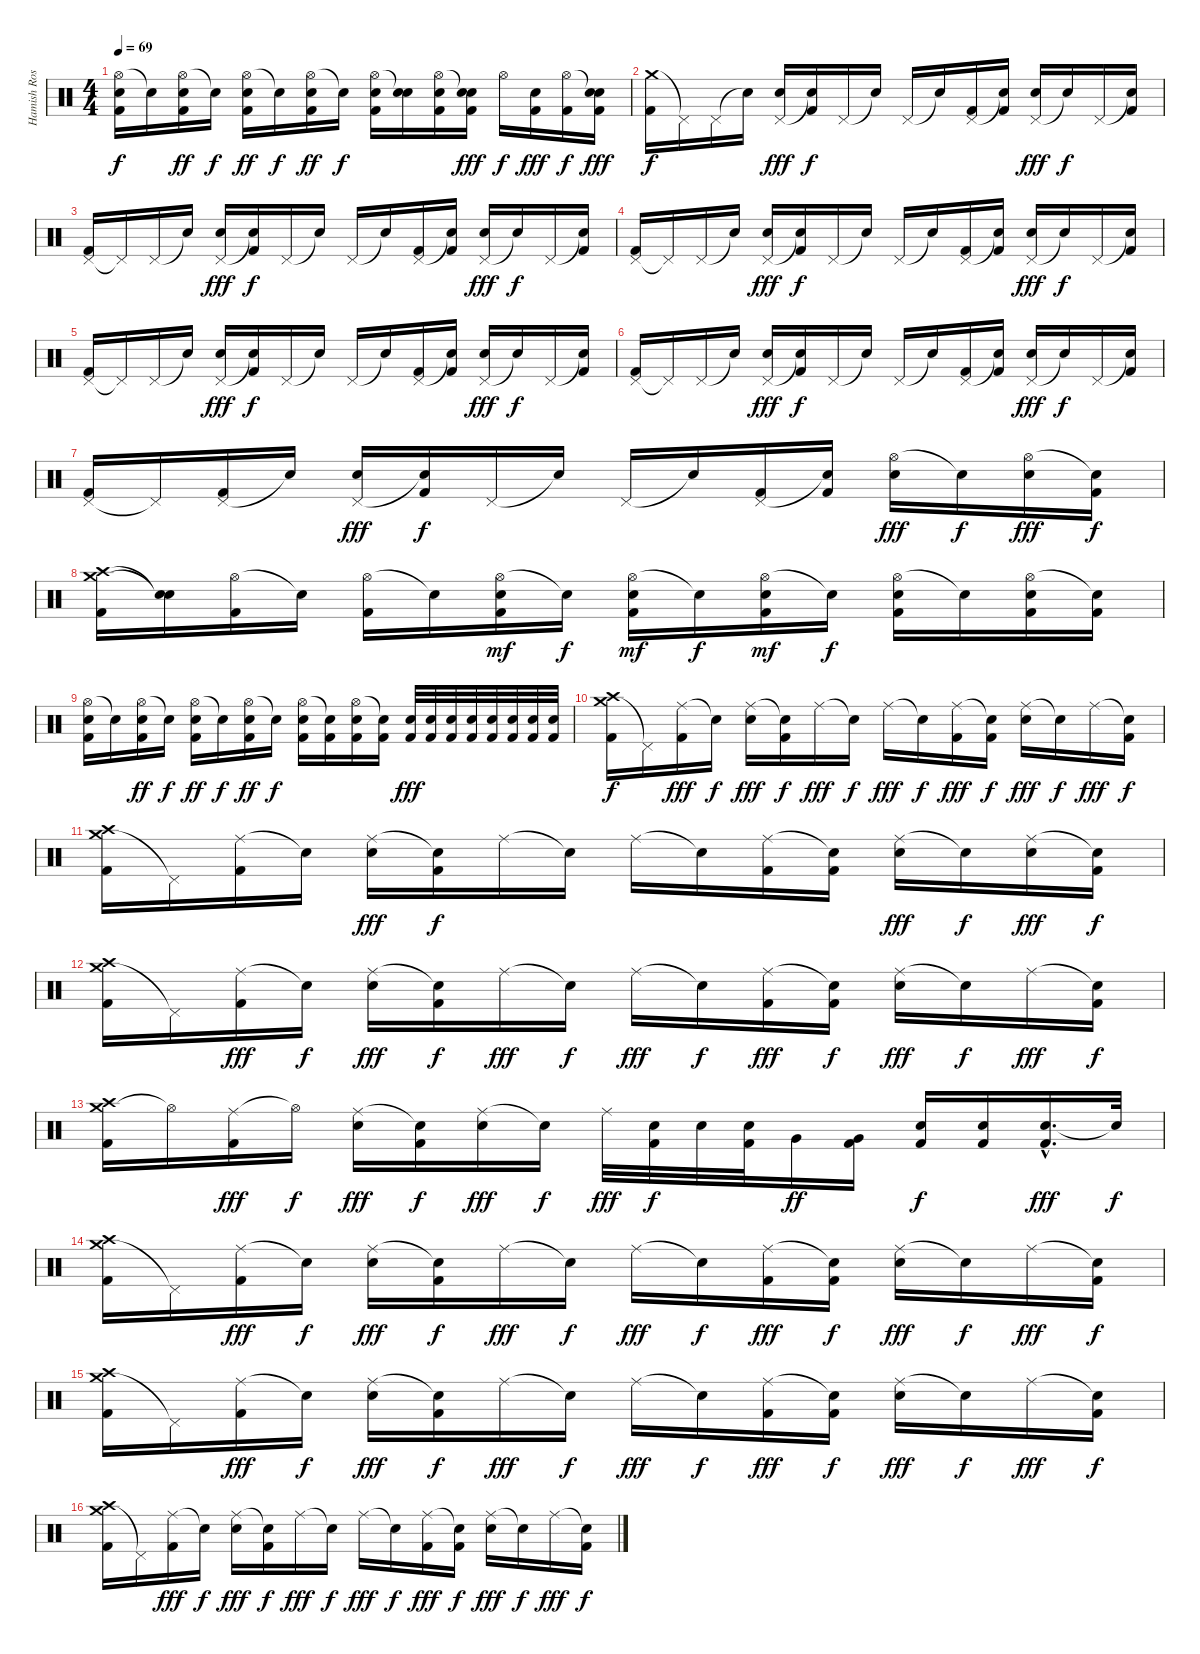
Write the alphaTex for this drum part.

\track ("Hamish Rosser" "Hamish Ros") {instrument percussion}
\staff {score}
\articulation defaults
\ts (4 4)
\tempo 69
\clef neutral
\ks c
("Hi-Hat (open)" "Snare (hit) 2" "Kick (hit) 2").16{dy f} "Snare (hit)"{t}.16 ("Hi-Hat (open)" "Snare (hit) 2" "Kick (hit) 2").16{dy ff} "Snare (hit)"{t}.16{dy f} ("Hi-Hat (open)" "Snare (hit) 2" "Kick (hit) 2").16{dy ff} "Snare (hit)"{t}.16{dy f} ("Hi-Hat (open)" "Snare (hit) 2" "Kick (hit) 2").16{dy ff} "Snare (hit)"{t}.16{dy f} ("Hi-Hat (open)" "Snare (hit) 2" "Kick (hit) 2").16 ("Snare (hit)"{t} "Snare (hit) 2").16 ("Hi-Hat (open)" "Snare (hit) 2" "Kick (hit) 2").16 ("Snare (hit)"{t} "Electric Snare (hit)" "Kick (hit) 2").16{dy fff} "Hi-Hat (open)".16{dy f} ("Electric Snare (hit)" "Kick (hit) 2").16{dy fff} ("Hi-Hat (open)" "Kick (hit) 2").16{dy f} ("Snare (hit)"{t} "Electric Snare (hit)" "Kick (hit) 2").16{dy fff} |
("Crash medium (hit)" "Kick (hit) 2").16{dy f} "Pedal Hi-Hat (hit)"{t}.16 "Pedal Hi-Hat (hit)".16 "Snare (hit)"{t}.16 ("Pedal Hi-Hat (hit)" "Electric Snare (hit)").16{dy fff} ("Snare (hit)"{t} "Kick (hit) 2").16{dy f} "Pedal Hi-Hat (hit)".16 "Snare (hit)"{t}.16 "Pedal Hi-Hat (hit)".16 "Snare (hit)"{t}.16 ("Pedal Hi-Hat (hit)" "Kick (hit) 2").16 ("Snare (hit)"{t} "Kick (hit) 2").16 ("Pedal Hi-Hat (hit)" "Electric Snare (hit)").16{dy fff} "Snare (hit)"{t}.16{dy f} "Pedal Hi-Hat (hit)".16 ("Snare (hit)"{t} "Kick (hit) 2").16 |
("Pedal Hi-Hat (hit)" "Kick (hit) 2").16 "Pedal Hi-Hat (hit)"{t}.16 "Pedal Hi-Hat (hit)".16 "Snare (hit)"{t}.16 ("Pedal Hi-Hat (hit)" "Electric Snare (hit)").16{dy fff} ("Snare (hit)"{t} "Kick (hit) 2").16{dy f} "Pedal Hi-Hat (hit)".16 "Snare (hit)"{t}.16 "Pedal Hi-Hat (hit)".16 "Snare (hit)"{t}.16 ("Pedal Hi-Hat (hit)" "Kick (hit) 2").16 ("Snare (hit)"{t} "Kick (hit) 2").16 ("Pedal Hi-Hat (hit)" "Electric Snare (hit)").16{dy fff} "Snare (hit)"{t}.16{dy f} "Pedal Hi-Hat (hit)".16 ("Snare (hit)"{t} "Kick (hit) 2").16 |
("Pedal Hi-Hat (hit)" "Kick (hit) 2").16 "Pedal Hi-Hat (hit)"{t}.16 "Pedal Hi-Hat (hit)".16 "Snare (hit)"{t}.16 ("Pedal Hi-Hat (hit)" "Electric Snare (hit)").16{dy fff} ("Snare (hit)"{t} "Kick (hit) 2").16{dy f} "Pedal Hi-Hat (hit)".16 "Snare (hit)"{t}.16 "Pedal Hi-Hat (hit)".16 "Snare (hit)"{t}.16 ("Pedal Hi-Hat (hit)" "Kick (hit) 2").16 ("Snare (hit)"{t} "Kick (hit) 2").16 ("Pedal Hi-Hat (hit)" "Electric Snare (hit)").16{dy fff} "Snare (hit)"{t}.16{dy f} "Pedal Hi-Hat (hit)".16 ("Snare (hit)"{t} "Kick (hit) 2").16 |
("Pedal Hi-Hat (hit)" "Kick (hit) 2").16 "Pedal Hi-Hat (hit)"{t}.16 "Pedal Hi-Hat (hit)".16 "Snare (hit)"{t}.16 ("Pedal Hi-Hat (hit)" "Electric Snare (hit)").16{dy fff} ("Snare (hit)"{t} "Kick (hit) 2").16{dy f} "Pedal Hi-Hat (hit)".16 "Snare (hit)"{t}.16 "Pedal Hi-Hat (hit)".16 "Snare (hit)"{t}.16 ("Pedal Hi-Hat (hit)" "Kick (hit) 2").16 ("Snare (hit)"{t} "Kick (hit) 2").16 ("Pedal Hi-Hat (hit)" "Electric Snare (hit)").16{dy fff} "Snare (hit)"{t}.16{dy f} "Pedal Hi-Hat (hit)".16 ("Snare (hit)"{t} "Kick (hit) 2").16 |
("Pedal Hi-Hat (hit)" "Kick (hit) 2").16 "Pedal Hi-Hat (hit)"{t}.16 "Pedal Hi-Hat (hit)".16 "Snare (hit)"{t}.16 ("Pedal Hi-Hat (hit)" "Electric Snare (hit)").16{dy fff} ("Snare (hit)"{t} "Kick (hit) 2").16{dy f} "Pedal Hi-Hat (hit)".16 "Snare (hit)"{t}.16 "Pedal Hi-Hat (hit)".16 "Snare (hit)"{t}.16 ("Pedal Hi-Hat (hit)" "Kick (hit) 2").16 ("Snare (hit)"{t} "Kick (hit) 2").16 ("Pedal Hi-Hat (hit)" "Electric Snare (hit)").16{dy fff} "Snare (hit)"{t}.16{dy f} "Pedal Hi-Hat (hit)".16 ("Snare (hit)"{t} "Kick (hit) 2").16 |
("Pedal Hi-Hat (hit)" "Kick (hit) 2").16 "Pedal Hi-Hat (hit)"{t}.16 ("Pedal Hi-Hat (hit)" "Kick (hit) 2").16 "Snare (hit)"{t}.16 ("Pedal Hi-Hat (hit)" "Electric Snare (hit)").16{dy fff} ("Snare (hit)"{t} "Kick (hit) 2").16{dy f} "Pedal Hi-Hat (hit)".16 "Snare (hit)"{t}.16 "Pedal Hi-Hat (hit)".16 "Snare (hit)"{t}.16 ("Pedal Hi-Hat (hit)" "Kick (hit) 2").16 ("Snare (hit)"{t} "Kick (hit) 2").16 ("Hi-Hat (open)" "Electric Snare (hit)").16{dy fff} "Snare (hit)"{t}.16{dy f} ("Hi-Hat (open)" "Electric Snare (hit)").16{dy fff} ("Snare (hit)"{t} "Kick (hit) 2").16{dy f} |
("Crash medium (hit)" "Crash high (hit)" "Kick (hit) 2").16 ("Snare (hit)"{t} "Snare (hit)"{t}).16 ("Hi-Hat (open)" "Kick (hit) 2").16 "Snare (hit)"{t}.16 ("Hi-Hat (open)" "Kick (hit) 2").16 "Snare (hit)"{t}.16 ("Hi-Hat (open)" "Snare (hit) 2" "Kick (hit) 2").16{dy mf} "Snare (hit)"{t}.16{dy f} ("Hi-Hat (open)" "Snare (hit) 2" "Kick (hit) 2").16{dy mf} "Snare (hit)"{t}.16{dy f} ("Hi-Hat (open)" "Snare (hit) 2" "Kick (hit) 2").16{dy mf} "Snare (hit)"{t}.16{dy f} ("Hi-Hat (open)" "Snare (hit) 2" "Kick (hit) 2").16 "Snare (hit)"{t}.16 ("Hi-Hat (open)" "Snare (hit) 2" "Kick (hit) 2").16 ("Snare (hit)"{t} "Kick (hit) 2").16 |
("Hi-Hat (open)" "Snare (hit) 2" "Kick (hit) 2").16 "Snare (hit)"{t}.16 ("Hi-Hat (open)" "Snare (hit) 2" "Kick (hit) 2").16{dy ff} "Snare (hit)"{t}.16{dy f} ("Hi-Hat (open)" "Snare (hit) 2" "Kick (hit) 2").16{dy ff} "Snare (hit)"{t}.16{dy f} ("Hi-Hat (open)" "Snare (hit) 2" "Kick (hit) 2").16{dy ff} "Snare (hit)"{t}.16{dy f} ("Hi-Hat (open)" "Snare (hit) 2" "Kick (hit) 2").16 ("Snare (hit)"{t} "Kick (hit) 2").16 ("Hi-Hat (open)" "Snare (hit) 2" "Kick (hit) 2").16 ("Snare (hit)"{t} "Kick (hit) 2").16 ("Electric Snare (hit)" "Kick (hit) 2").32{dy fff} ("Electric Snare (hit)" "Kick (hit) 2").32 ("Electric Snare (hit)" "Kick (hit) 2").32 ("Electric Snare (hit)" "Kick (hit) 2").32 ("Electric Snare (hit)" "Kick (hit) 2").32 ("Electric Snare (hit)" "Kick (hit) 2").32 ("Electric Snare (hit)" "Kick (hit) 2").32 ("Electric Snare (hit)" "Kick (hit) 2").32 |
("Crash medium (hit)" "Crash high (hit)" "Kick (hit) 2").16{dy f} "Pedal Hi-Hat (hit)"{t}.16 ("Ride (middle)" "Kick (hit) 2").16{dy fff} "Snare (hit)"{t}.16{dy f} ("Ride (middle)" "Electric Snare (hit)").16{dy fff} ("Snare (hit)"{t} "Kick (hit) 2").16{dy f} "Ride (middle)".16{dy fff} "Snare (hit)"{t}.16{dy f} "Ride (middle)".16{dy fff} "Snare (hit)"{t}.16{dy f} ("Ride (middle)" "Kick (hit) 2").16{dy fff} ("Snare (hit)"{t} "Kick (hit) 2").16{dy f} ("Ride (middle)" "Electric Snare (hit)").16{dy fff} "Snare (hit)"{t}.16{dy f} "Ride (middle)".16{dy fff} ("Snare (hit)"{t} "Kick (hit) 2").16{dy f} |
("Crash medium (hit)" "Crash high (hit)" "Kick (hit) 2").16 "Pedal Hi-Hat (hit)"{t}.16 ("Ride (middle)" "Kick (hit) 2").16 "Snare (hit)"{t}.16 ("Ride (middle)" "Electric Snare (hit)").16{dy fff} ("Snare (hit)"{t} "Kick (hit) 2").16{dy f} "Ride (middle)".16 "Snare (hit)"{t}.16 "Ride (middle)".16 "Snare (hit)"{t}.16 ("Ride (middle)" "Kick (hit) 2").16 ("Snare (hit)"{t} "Kick (hit) 2").16 ("Ride (middle)" "Electric Snare (hit)").16{dy fff} "Snare (hit)"{t}.16{dy f} ("Ride (middle)" "Electric Snare (hit)").16{dy fff} ("Snare (hit)"{t} "Kick (hit) 2").16{dy f} |
("Crash medium (hit)" "Crash high (hit)" "Kick (hit) 2").16 "Pedal Hi-Hat (hit)"{t}.16 ("Ride (middle)" "Kick (hit) 2").16{dy fff} "Snare (hit)"{t}.16{dy f} ("Ride (middle)" "Electric Snare (hit)").16{dy fff} ("Snare (hit)"{t} "Kick (hit) 2").16{dy f} "Ride (middle)".16{dy fff} "Snare (hit)"{t}.16{dy f} "Ride (middle)".16{dy fff} "Snare (hit)"{t}.16{dy f} ("Ride (middle)" "Kick (hit) 2").16{dy fff} ("Snare (hit)"{t} "Kick (hit) 2").16{dy f} ("Ride (middle)" "Electric Snare (hit)").16{dy fff} "Snare (hit)"{t}.16{dy f} "Ride (middle)".16{dy fff} ("Snare (hit)"{t} "Kick (hit) 2").16{dy f} |
("Crash medium (hit)" "Crash high (hit)" "Kick (hit) 2").16 "Hi-Hat (open)"{t}.16 ("Ride (middle)" "Kick (hit) 2").16{dy fff} "Hi-Hat (open)"{t}.16{dy f} ("Ride (middle)" "Electric Snare (hit)").16{dy fff} ("Snare (hit)"{t} "Kick (hit) 2").16{dy f} ("Ride (middle)" "Snare (hit) 2").16{dy fff} "Snare (hit)"{t}.16{dy f} "Ride (middle)".32{dy fff} ("Snare (hit) 2" "Kick (hit) 2").32{dy f} "Snare (hit) 2".32 ("Snare (hit) 2" "Kick (hit) 2").32 "Very Low Tom (hit)".16{dy ff} ("Very Low Tom (hit)" "Kick (hit) 2").16 ("Snare (hit) 2" "Kick (hit) 2").16{dy f} ("Snare (hit) 2" "Kick (hit) 2").16 ("Electric Snare (hit)"{hac} "Kick (hit) 2"{hac}).16{d dy fff} "Snare (hit)"{t}.32{dy f} |
("Crash medium (hit)" "Crash high (hit)" "Kick (hit) 2").16 "Pedal Hi-Hat (hit)"{t}.16 ("Ride (middle)" "Kick (hit) 2").16{dy fff} "Snare (hit)"{t}.16{dy f} ("Ride (middle)" "Electric Snare (hit)").16{dy fff} ("Snare (hit)"{t} "Kick (hit) 2").16{dy f} "Ride (middle)".16{dy fff} "Snare (hit)"{t}.16{dy f} "Ride (middle)".16{dy fff} "Snare (hit)"{t}.16{dy f} ("Ride (middle)" "Kick (hit) 2").16{dy fff} ("Snare (hit)"{t} "Kick (hit) 2").16{dy f} ("Ride (middle)" "Electric Snare (hit)").16{dy fff} "Snare (hit)"{t}.16{dy f} "Ride (middle)".16{dy fff} ("Snare (hit)"{t} "Kick (hit) 2").16{dy f} |
("Crash medium (hit)" "Crash high (hit)" "Kick (hit) 2").16 "Pedal Hi-Hat (hit)"{t}.16 ("Ride (middle)" "Kick (hit) 2").16{dy fff} "Snare (hit)"{t}.16{dy f} ("Ride (middle)" "Electric Snare (hit)").16{dy fff} ("Snare (hit)"{t} "Kick (hit) 2").16{dy f} "Ride (middle)".16{dy fff} "Snare (hit)"{t}.16{dy f} "Ride (middle)".16{dy fff} "Snare (hit)"{t}.16{dy f} ("Ride (middle)" "Kick (hit) 2").16{dy fff} ("Snare (hit)"{t} "Kick (hit) 2").16{dy f} ("Ride (middle)" "Electric Snare (hit)").16{dy fff} "Snare (hit)"{t}.16{dy f} "Ride (middle)".16{dy fff} ("Snare (hit)"{t} "Kick (hit) 2").16{dy f} |
("Crash medium (hit)" "Crash high (hit)" "Kick (hit) 2").16 "Pedal Hi-Hat (hit)"{t}.16 ("Ride (middle)" "Kick (hit) 2").16{dy fff} "Snare (hit)"{t}.16{dy f} ("Ride (middle)" "Electric Snare (hit)").16{dy fff} ("Snare (hit)"{t} "Kick (hit) 2").16{dy f} "Ride (middle)".16{dy fff} "Snare (hit)"{t}.16{dy f} "Ride (middle)".16{dy fff} "Snare (hit)"{t}.16{dy f} ("Ride (middle)" "Kick (hit) 2").16{dy fff} ("Snare (hit)"{t} "Kick (hit) 2").16{dy f} ("Ride (middle)" "Electric Snare (hit)").16{dy fff} "Snare (hit)"{t}.16{dy f} "Ride (middle)".16{dy fff} ("Snare (hit)"{t} "Kick (hit) 2").16{dy f}
